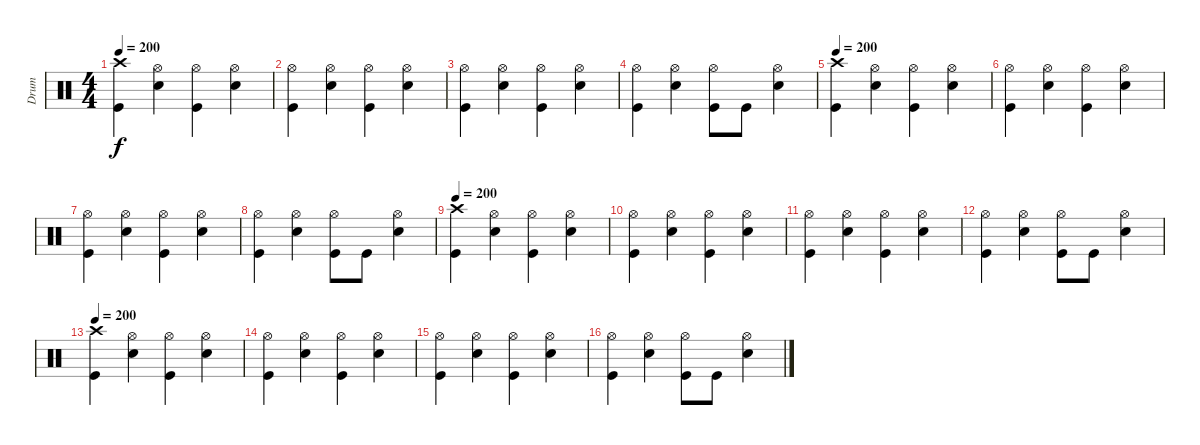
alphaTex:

\track ("Drum" "Drum") {instrument percussion}
\staff {score}
\articulation defaults
\ts (4 4)
\tempo 200
\clef neutral
\ks c
("Crash high (hit)" "Kick (hit)").4{dy f} ("Hi-Hat (open)" "Electric Snare (hit)").4 ("Hi-Hat (open)" "Kick (hit)").4 ("Hi-Hat (open)" "Electric Snare (hit)").4 |
("Hi-Hat (open)" "Kick (hit)").4 ("Hi-Hat (open)" "Electric Snare (hit)").4 ("Hi-Hat (open)" "Kick (hit)").4 ("Hi-Hat (open)" "Electric Snare (hit)").4 |
("Hi-Hat (open)" "Kick (hit)").4 ("Hi-Hat (open)" "Electric Snare (hit)").4 ("Hi-Hat (open)" "Kick (hit)").4 ("Hi-Hat (open)" "Electric Snare (hit)").4 |
("Hi-Hat (open)" "Kick (hit)").4 ("Hi-Hat (open)" "Electric Snare (hit)").4 ("Hi-Hat (open)" "Kick (hit)").8 "Kick (hit)".8 ("Hi-Hat (open)" "Electric Snare (hit)").4 |
\tempo 200
("Crash high (hit)" "Kick (hit)").4 ("Hi-Hat (open)" "Electric Snare (hit)").4 ("Hi-Hat (open)" "Kick (hit)").4 ("Hi-Hat (open)" "Electric Snare (hit)").4 |
("Hi-Hat (open)" "Kick (hit)").4 ("Hi-Hat (open)" "Electric Snare (hit)").4 ("Hi-Hat (open)" "Kick (hit)").4 ("Hi-Hat (open)" "Electric Snare (hit)").4 |
("Hi-Hat (open)" "Kick (hit)").4 ("Hi-Hat (open)" "Electric Snare (hit)").4 ("Hi-Hat (open)" "Kick (hit)").4 ("Hi-Hat (open)" "Electric Snare (hit)").4 |
("Hi-Hat (open)" "Kick (hit)").4 ("Hi-Hat (open)" "Electric Snare (hit)").4 ("Hi-Hat (open)" "Kick (hit)").8 "Kick (hit)".8 ("Hi-Hat (open)" "Electric Snare (hit)").4 |
\tempo 200
("Crash high (hit)" "Kick (hit)").4 ("Hi-Hat (open)" "Electric Snare (hit)").4 ("Hi-Hat (open)" "Kick (hit)").4 ("Hi-Hat (open)" "Electric Snare (hit)").4 |
("Hi-Hat (open)" "Kick (hit)").4 ("Hi-Hat (open)" "Electric Snare (hit)").4 ("Hi-Hat (open)" "Kick (hit)").4 ("Hi-Hat (open)" "Electric Snare (hit)").4 |
("Hi-Hat (open)" "Kick (hit)").4 ("Hi-Hat (open)" "Electric Snare (hit)").4 ("Hi-Hat (open)" "Kick (hit)").4 ("Hi-Hat (open)" "Electric Snare (hit)").4 |
("Hi-Hat (open)" "Kick (hit)").4 ("Hi-Hat (open)" "Electric Snare (hit)").4 ("Hi-Hat (open)" "Kick (hit)").8 "Kick (hit)".8 ("Hi-Hat (open)" "Electric Snare (hit)").4 |
\tempo 200
("Crash high (hit)" "Kick (hit)").4 ("Hi-Hat (open)" "Electric Snare (hit)").4 ("Hi-Hat (open)" "Kick (hit)").4 ("Hi-Hat (open)" "Electric Snare (hit)").4 |
("Hi-Hat (open)" "Kick (hit)").4 ("Hi-Hat (open)" "Electric Snare (hit)").4 ("Hi-Hat (open)" "Kick (hit)").4 ("Hi-Hat (open)" "Electric Snare (hit)").4 |
("Hi-Hat (open)" "Kick (hit)").4 ("Hi-Hat (open)" "Electric Snare (hit)").4 ("Hi-Hat (open)" "Kick (hit)").4 ("Hi-Hat (open)" "Electric Snare (hit)").4 |
("Hi-Hat (open)" "Kick (hit)").4 ("Hi-Hat (open)" "Electric Snare (hit)").4 ("Hi-Hat (open)" "Kick (hit)").8 "Kick (hit)".8 ("Hi-Hat (open)" "Electric Snare (hit)").4
